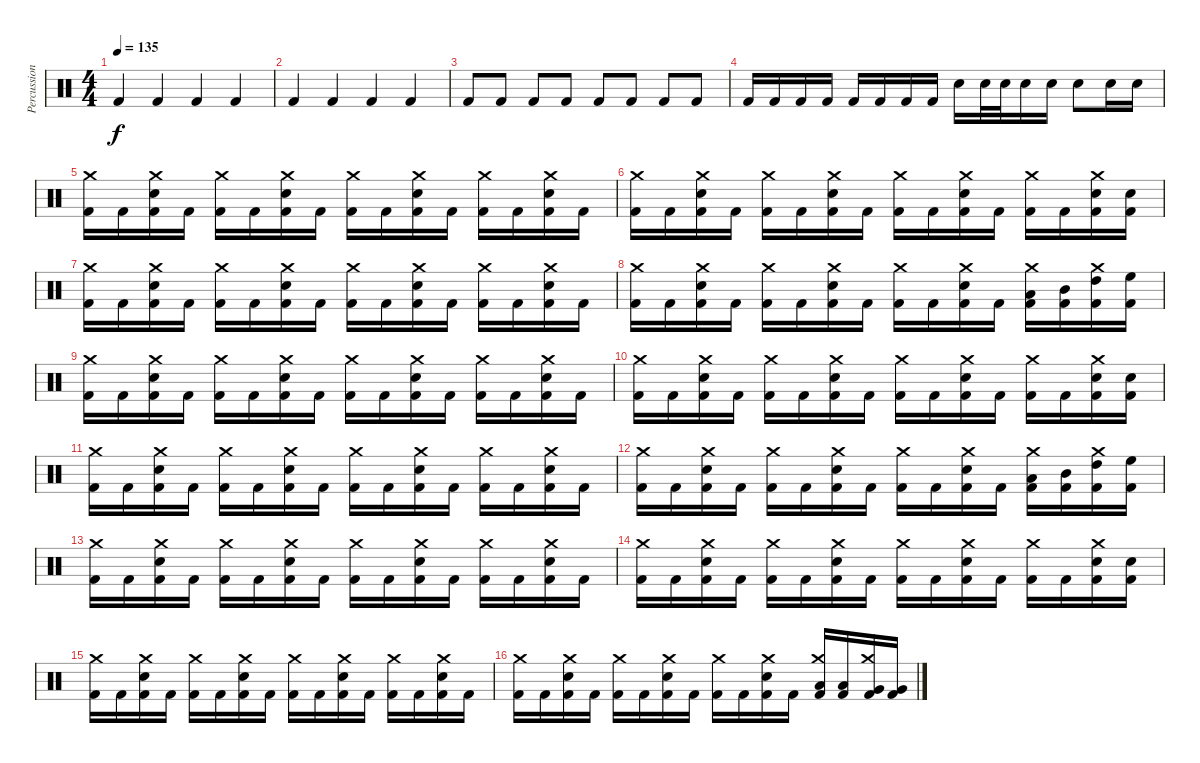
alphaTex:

\track ("Percussion" "Percussion") {instrument percussion}
\staff {score}
\articulation defaults
\ts (4 4)
\tempo 135
\clef neutral
\ks c "Kick (hit) 2".4{dy f} "Kick (hit) 2".4 "Kick (hit) 2".4 "Kick (hit) 2".4
|
"Kick (hit) 2".4 "Kick (hit) 2".4 "Kick (hit) 2".4 "Kick (hit) 2".4 |
"Kick (hit) 2".8 "Kick (hit) 2".8 "Kick (hit) 2".8 "Kick (hit) 2".8 "Kick (hit) 2".8 "Kick (hit) 2".8 "Kick (hit) 2".8 "Kick (hit) 2".8 |
"Kick (hit) 2".16 "Kick (hit) 2".16 "Kick (hit) 2".16 "Kick (hit) 2".16 "Kick (hit) 2".16 "Kick (hit) 2".16 "Kick (hit) 2".16 "Kick (hit) 2".16 "Snare (hit) 2".16 "Snare (hit) 2".32 "Snare (hit) 2".32 "Snare (hit) 2".16 "Snare (hit) 2".16 "Snare (hit) 2".8 "Snare (hit) 2".16 "Snare (hit) 2".16 |
("Crash medium (hit)" "Kick (hit) 2").16 "Kick (hit) 2".16 ("Crash medium (hit)" "Snare (hit) 2" "Kick (hit) 2").16 "Kick (hit) 2".16 ("Crash medium (hit)" "Kick (hit) 2").16 "Kick (hit) 2".16 ("Crash medium (hit)" "Snare (hit) 2" "Kick (hit) 2").16 "Kick (hit) 2".16 ("Crash medium (hit)" "Kick (hit) 2").16 "Kick (hit) 2".16 ("Crash medium (hit)" "Snare (hit) 2" "Kick (hit) 2").16 "Kick (hit) 2".16 ("Crash medium (hit)" "Kick (hit) 2").16 "Kick (hit) 2".16 ("Crash medium (hit)" "Snare (hit) 2" "Kick (hit) 2").16 "Kick (hit) 2".16 |
("Crash medium (hit)" "Kick (hit) 2").16 "Kick (hit) 2".16 ("Crash medium (hit)" "Snare (hit) 2" "Kick (hit) 2").16 "Kick (hit) 2".16 ("Crash medium (hit)" "Kick (hit) 2").16 "Kick (hit) 2".16 ("Crash medium (hit)" "Snare (hit) 2" "Kick (hit) 2").16 "Kick (hit) 2".16 ("Crash medium (hit)" "Kick (hit) 2").16 "Kick (hit) 2".16 ("Crash medium (hit)" "Snare (hit) 2" "Kick (hit) 2").16 "Kick (hit) 2".16 ("Crash medium (hit)" "Kick (hit) 2").16 "Kick (hit) 2".16 ("Crash medium (hit)" "Snare (hit) 2" "Kick (hit) 2").16 ("Snare (hit) 2" "Kick (hit) 2").16 |
("Crash medium (hit)" "Kick (hit) 2").16 "Kick (hit) 2".16 ("Crash medium (hit)" "Snare (hit) 2" "Kick (hit) 2").16 "Kick (hit) 2".16 ("Crash medium (hit)" "Kick (hit) 2").16 "Kick (hit) 2".16 ("Crash medium (hit)" "Snare (hit) 2" "Kick (hit) 2").16 "Kick (hit) 2".16 ("Crash medium (hit)" "Kick (hit) 2").16 "Kick (hit) 2".16 ("Crash medium (hit)" "Snare (hit) 2" "Kick (hit) 2").16 "Kick (hit) 2".16 ("Crash medium (hit)" "Kick (hit) 2").16 "Kick (hit) 2".16 ("Crash medium (hit)" "Snare (hit) 2" "Kick (hit) 2").16 "Kick (hit) 2".16 |
("Crash medium (hit)" "Kick (hit) 2").16 "Kick (hit) 2".16 ("Crash medium (hit)" "Snare (hit) 2" "Kick (hit) 2").16 "Kick (hit) 2".16 ("Crash medium (hit)" "Kick (hit) 2").16 "Kick (hit) 2".16 ("Crash medium (hit)" "Snare (hit) 2" "Kick (hit) 2").16 "Kick (hit) 2".16 ("Crash medium (hit)" "Kick (hit) 2").16 "Kick (hit) 2".16 ("Crash medium (hit)" "Snare (hit) 2" "Kick (hit) 2").16 "Kick (hit) 2".16 ("Crash medium (hit)" "Low Tom (hit)" "Kick (hit) 2").16 ("Mid Tom (hit)" "Kick (hit) 2").16 ("Crash medium (hit)" "High Tom (hit)" "Kick (hit) 2").16 ("High Floor Tom (hit)" "Kick (hit) 2").16 |
("Crash medium (hit)" "Kick (hit) 2").16 "Kick (hit) 2".16 ("Crash medium (hit)" "Snare (hit) 2" "Kick (hit) 2").16 "Kick (hit) 2".16 ("Crash medium (hit)" "Kick (hit) 2").16 "Kick (hit) 2".16 ("Crash medium (hit)" "Snare (hit) 2" "Kick (hit) 2").16 "Kick (hit) 2".16 ("Crash medium (hit)" "Kick (hit) 2").16 "Kick (hit) 2".16 ("Crash medium (hit)" "Snare (hit) 2" "Kick (hit) 2").16 "Kick (hit) 2".16 ("Crash medium (hit)" "Kick (hit) 2").16 "Kick (hit) 2".16 ("Crash medium (hit)" "Snare (hit) 2" "Kick (hit) 2").16 "Kick (hit) 2".16 |
("Crash medium (hit)" "Kick (hit) 2").16 "Kick (hit) 2".16 ("Crash medium (hit)" "Snare (hit) 2" "Kick (hit) 2").16 "Kick (hit) 2".16 ("Crash medium (hit)" "Kick (hit) 2").16 "Kick (hit) 2".16 ("Crash medium (hit)" "Snare (hit) 2" "Kick (hit) 2").16 "Kick (hit) 2".16 ("Crash medium (hit)" "Kick (hit) 2").16 "Kick (hit) 2".16 ("Crash medium (hit)" "Snare (hit) 2" "Kick (hit) 2").16 "Kick (hit) 2".16 ("Crash medium (hit)" "Kick (hit) 2").16 "Kick (hit) 2".16 ("Crash medium (hit)" "Snare (hit) 2" "Kick (hit) 2").16 ("Snare (hit) 2" "Kick (hit) 2").16 |
("Crash medium (hit)" "Kick (hit) 2").16 "Kick (hit) 2".16 ("Crash medium (hit)" "Snare (hit) 2" "Kick (hit) 2").16 "Kick (hit) 2".16 ("Crash medium (hit)" "Kick (hit) 2").16 "Kick (hit) 2".16 ("Crash medium (hit)" "Snare (hit) 2" "Kick (hit) 2").16 "Kick (hit) 2".16 ("Crash medium (hit)" "Kick (hit) 2").16 "Kick (hit) 2".16 ("Crash medium (hit)" "Snare (hit) 2" "Kick (hit) 2").16 "Kick (hit) 2".16 ("Crash medium (hit)" "Kick (hit) 2").16 "Kick (hit) 2".16 ("Crash medium (hit)" "Snare (hit) 2" "Kick (hit) 2").16 "Kick (hit) 2".16 |
("Crash medium (hit)" "Kick (hit) 2").16 "Kick (hit) 2".16 ("Crash medium (hit)" "Snare (hit) 2" "Kick (hit) 2").16 "Kick (hit) 2".16 ("Crash medium (hit)" "Kick (hit) 2").16 "Kick (hit) 2".16 ("Crash medium (hit)" "Snare (hit) 2" "Kick (hit) 2").16 "Kick (hit) 2".16 ("Crash medium (hit)" "Kick (hit) 2").16 "Kick (hit) 2".16 ("Crash medium (hit)" "Snare (hit) 2" "Kick (hit) 2").16 "Kick (hit) 2".16 ("Crash medium (hit)" "Low Tom (hit)" "Kick (hit) 2").16 ("Mid Tom (hit)" "Kick (hit) 2").16 ("Crash medium (hit)" "High Tom (hit)" "Kick (hit) 2").16 ("High Floor Tom (hit)" "Kick (hit) 2").16 |
("Crash medium (hit)" "Kick (hit) 2").16 "Kick (hit) 2".16 ("Crash medium (hit)" "Snare (hit) 2" "Kick (hit) 2").16 "Kick (hit) 2".16 ("Crash medium (hit)" "Kick (hit) 2").16 "Kick (hit) 2".16 ("Crash medium (hit)" "Snare (hit) 2" "Kick (hit) 2").16 "Kick (hit) 2".16 ("Crash medium (hit)" "Kick (hit) 2").16 "Kick (hit) 2".16 ("Crash medium (hit)" "Snare (hit) 2" "Kick (hit) 2").16 "Kick (hit) 2".16 ("Crash medium (hit)" "Kick (hit) 2").16 "Kick (hit) 2".16 ("Crash medium (hit)" "Snare (hit) 2" "Kick (hit) 2").16 "Kick (hit) 2".16 |
("Crash medium (hit)" "Kick (hit) 2").16 "Kick (hit) 2".16 ("Crash medium (hit)" "Snare (hit) 2" "Kick (hit) 2").16 "Kick (hit) 2".16 ("Crash medium (hit)" "Kick (hit) 2").16 "Kick (hit) 2".16 ("Crash medium (hit)" "Snare (hit) 2" "Kick (hit) 2").16 "Kick (hit) 2".16 ("Crash medium (hit)" "Kick (hit) 2").16 "Kick (hit) 2".16 ("Crash medium (hit)" "Snare (hit) 2" "Kick (hit) 2").16 "Kick (hit) 2".16 ("Crash medium (hit)" "Kick (hit) 2").16 "Kick (hit) 2".16 ("Crash medium (hit)" "Snare (hit) 2" "Kick (hit) 2").16 ("Snare (hit) 2" "Kick (hit) 2").16 |
("Crash medium (hit)" "Kick (hit) 2").16 "Kick (hit) 2".16 ("Crash medium (hit)" "Snare (hit) 2" "Kick (hit) 2").16 "Kick (hit) 2".16 ("Crash medium (hit)" "Kick (hit) 2").16 "Kick (hit) 2".16 ("Crash medium (hit)" "Snare (hit) 2" "Kick (hit) 2").16 "Kick (hit) 2".16 ("Crash medium (hit)" "Kick (hit) 2").16 "Kick (hit) 2".16 ("Crash medium (hit)" "Snare (hit) 2" "Kick (hit) 2").16 "Kick (hit) 2".16 ("Crash medium (hit)" "Kick (hit) 2").16 "Kick (hit) 2".16 ("Crash medium (hit)" "Snare (hit) 2" "Kick (hit) 2").16 "Kick (hit) 2".16 |
("Crash medium (hit)" "Kick (hit) 2").16 "Kick (hit) 2".16 ("Crash medium (hit)" "Snare (hit) 2" "Kick (hit) 2").16 "Kick (hit) 2".16 ("Crash medium (hit)" "Kick (hit) 2").16 "Kick (hit) 2".16 ("Crash medium (hit)" "Snare (hit) 2" "Kick (hit) 2").16 "Kick (hit) 2".16 ("Crash medium (hit)" "Kick (hit) 2").16 "Kick (hit) 2".16 ("Crash medium (hit)" "Snare (hit) 2" "Kick (hit) 2").16 "Kick (hit) 2".16 ("Crash medium (hit)" "Low Floor Tom (hit)" "Kick (hit) 2").16 ("Low Floor Tom (hit)" "Kick (hit) 2").16 ("Crash medium (hit)" "Very Low Tom (hit)" "Kick (hit) 2").16 ("Very Low Tom (hit)" "Kick (hit) 2").16
